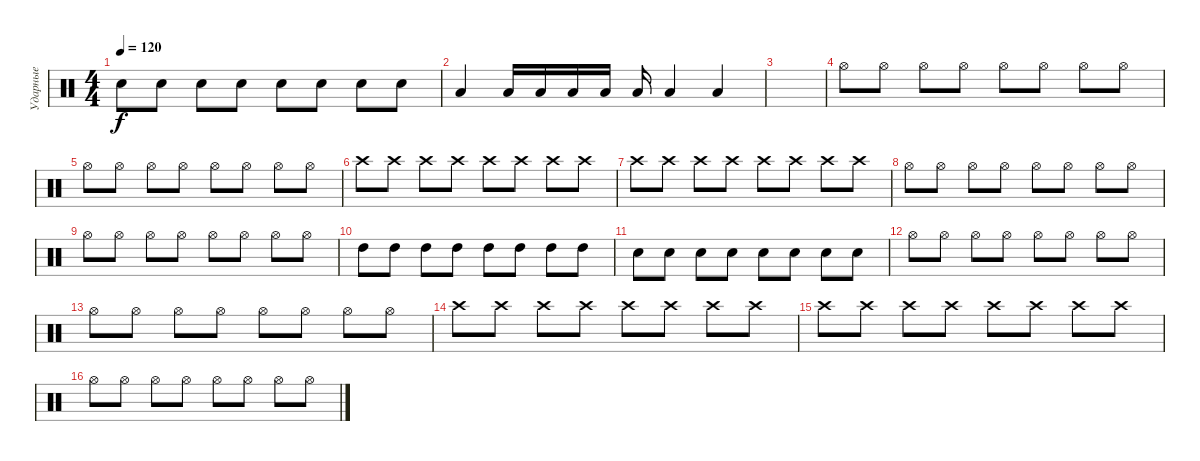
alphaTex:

\track ("Ударные" "Ударные") {instrument percussion}
\staff {score}
\articulation defaults
\ts (4 4)
\tempo 120
\clef neutral
\ks c "Electric Snare (hit)".8{dy f} "Electric Snare (hit)".8 "Electric Snare (hit)".8 "Electric Snare (hit)".8 "Electric Snare (hit)".8 "Electric Snare (hit)".8 "Electric Snare (hit)".8 "Electric Snare (hit)".8
|
"Low Floor Tom (hit)".4 "Low Floor Tom (hit)".16 "Low Floor Tom (hit)".16 "Low Floor Tom (hit)".16 "Low Floor Tom (hit)".16 "Low Floor Tom (hit)".16 "Low Floor Tom (hit)".4 "Low Floor Tom (hit)".4 |
|
"Hi-Hat (open)".8 "Hi-Hat (open)".8 "Hi-Hat (open)".8 "Hi-Hat (open)".8 "Hi-Hat (open)".8 "Hi-Hat (open)".8 "Hi-Hat (open)".8 "Hi-Hat (open)".8 |
"Hi-Hat (open)".8 "Hi-Hat (open)".8 "Hi-Hat (open)".8 "Hi-Hat (open)".8 "Hi-Hat (open)".8 "Hi-Hat (open)".8 "Hi-Hat (open)".8 "Hi-Hat (open)".8 |
"Crash high (hit)".8 "Crash high (hit)".8 "Crash high (hit)".8 "Crash high (hit)".8 "Crash high (hit)".8 "Crash high (hit)".8 "Crash high (hit)".8 "Crash high (hit)".8 |
"Crash high (hit)".8 "Crash high (hit)".8 "Crash high (hit)".8 "Crash high (hit)".8 "Crash high (hit)".8 "Crash high (hit)".8 "Crash high (hit)".8 "Crash high (hit)".8 |
"Hi-Hat (open)".8 "Hi-Hat (open)".8 "Hi-Hat (open)".8 "Hi-Hat (open)".8 "Hi-Hat (open)".8 "Hi-Hat (open)".8 "Hi-Hat (open)".8 "Hi-Hat (open)".8 |
"Hi-Hat (open)".8 "Hi-Hat (open)".8 "Hi-Hat (open)".8 "Hi-Hat (open)".8 "Hi-Hat (open)".8 "Hi-Hat (open)".8 "Hi-Hat (open)".8 "Hi-Hat (open)".8 |
"High Tom (hit)".8 "High Tom (hit)".8 "High Tom (hit)".8 "High Tom (hit)".8 "High Tom (hit)".8 "High Tom (hit)".8 "High Tom (hit)".8 "High Tom (hit)".8 |
"Electric Snare (hit)".8 "Electric Snare (hit)".8 "Electric Snare (hit)".8 "Electric Snare (hit)".8 "Electric Snare (hit)".8 "Electric Snare (hit)".8 "Electric Snare (hit)".8 "Electric Snare (hit)".8 |
"Hi-Hat (open)".8 "Hi-Hat (open)".8 "Hi-Hat (open)".8 "Hi-Hat (open)".8 "Hi-Hat (open)".8 "Hi-Hat (open)".8 "Hi-Hat (open)".8 "Hi-Hat (open)".8 |
"Hi-Hat (open)".8 "Hi-Hat (open)".8 "Hi-Hat (open)".8 "Hi-Hat (open)".8 "Hi-Hat (open)".8 "Hi-Hat (open)".8 "Hi-Hat (open)".8 "Hi-Hat (open)".8 |
"Crash high (hit)".8 "Crash high (hit)".8 "Crash high (hit)".8 "Crash high (hit)".8 "Crash high (hit)".8 "Crash high (hit)".8 "Crash high (hit)".8 "Crash high (hit)".8 |
"Crash high (hit)".8 "Crash high (hit)".8 "Crash high (hit)".8 "Crash high (hit)".8 "Crash high (hit)".8 "Crash high (hit)".8 "Crash high (hit)".8 "Crash high (hit)".8 |
"Hi-Hat (open)".8 "Hi-Hat (open)".8 "Hi-Hat (open)".8 "Hi-Hat (open)".8 "Hi-Hat (open)".8 "Hi-Hat (open)".8 "Hi-Hat (open)".8 "Hi-Hat (open)".8
